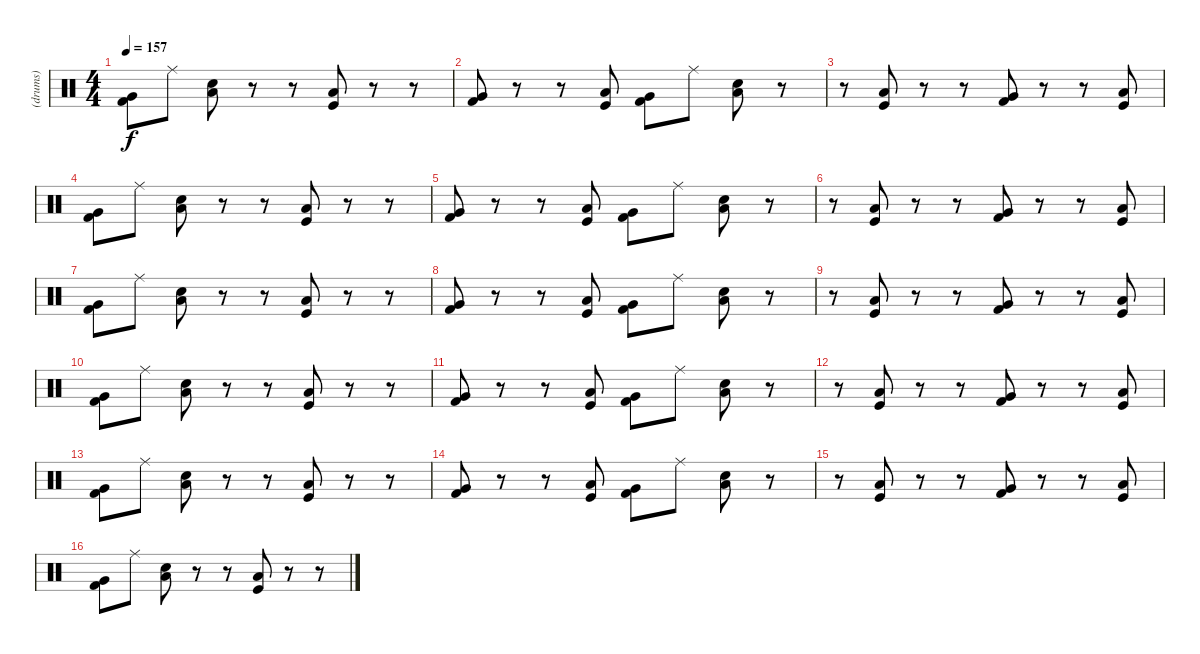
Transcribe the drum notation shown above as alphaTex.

\track ("(drums)" "(drums)") {instrument percussion}
\staff {score}
\articulation defaults
\ts (4 4)
\tempo 157
\clef neutral
\ks c
("Kick (hit) 2" "Very Low Tom (hit)").8{dy f} "Ride (middle)".8 ("Snare (hit) 2" "Low Floor Tom (hit)").8 r.8 r.8 ("Kick (hit)" "Low Tom (hit)").8 r.8 r.8 |
("Kick (hit) 2" "Very Low Tom (hit)").8 r.8 r.8 ("Kick (hit)" "Low Tom (hit)").8 ("Kick (hit) 2" "Very Low Tom (hit)").8 "Ride (middle)".8 ("Snare (hit) 2" "Low Floor Tom (hit)").8 r.8 |
r.8 ("Kick (hit)" "Low Tom (hit)").8 r.8 r.8 ("Kick (hit) 2" "Very Low Tom (hit)").8 r.8 r.8 ("Kick (hit)" "Low Tom (hit)").8 |
("Kick (hit) 2" "Very Low Tom (hit)").8 "Ride (middle)".8 ("Snare (hit) 2" "Low Floor Tom (hit)").8 r.8 r.8 ("Kick (hit)" "Low Tom (hit)").8 r.8 r.8 |
("Kick (hit) 2" "Very Low Tom (hit)").8 r.8 r.8 ("Kick (hit)" "Low Tom (hit)").8 ("Kick (hit) 2" "Very Low Tom (hit)").8 "Ride (middle)".8 ("Snare (hit) 2" "Low Floor Tom (hit)").8 r.8 |
r.8 ("Kick (hit)" "Low Tom (hit)").8 r.8 r.8 ("Kick (hit) 2" "Very Low Tom (hit)").8 r.8 r.8 ("Kick (hit)" "Low Tom (hit)").8 |
("Kick (hit) 2" "Very Low Tom (hit)").8 "Ride (middle)".8 ("Snare (hit) 2" "Low Floor Tom (hit)").8 r.8 r.8 ("Kick (hit)" "Low Tom (hit)").8 r.8 r.8 |
("Kick (hit) 2" "Very Low Tom (hit)").8 r.8 r.8 ("Kick (hit)" "Low Tom (hit)").8 ("Kick (hit) 2" "Very Low Tom (hit)").8 "Ride (middle)".8 ("Snare (hit) 2" "Low Floor Tom (hit)").8 r.8 |
r.8 ("Kick (hit)" "Low Tom (hit)").8 r.8 r.8 ("Kick (hit) 2" "Very Low Tom (hit)").8 r.8 r.8 ("Kick (hit)" "Low Tom (hit)").8 |
("Kick (hit) 2" "Very Low Tom (hit)").8 "Ride (middle)".8 ("Snare (hit) 2" "Low Floor Tom (hit)").8 r.8 r.8 ("Kick (hit)" "Low Tom (hit)").8 r.8 r.8 |
("Kick (hit) 2" "Very Low Tom (hit)").8 r.8 r.8 ("Kick (hit)" "Low Tom (hit)").8 ("Kick (hit) 2" "Very Low Tom (hit)").8 "Ride (middle)".8 ("Snare (hit) 2" "Low Floor Tom (hit)").8 r.8 |
r.8 ("Kick (hit)" "Low Tom (hit)").8 r.8 r.8 ("Kick (hit) 2" "Very Low Tom (hit)").8 r.8 r.8 ("Kick (hit)" "Low Tom (hit)").8 |
("Kick (hit) 2" "Very Low Tom (hit)").8 "Ride (middle)".8 ("Snare (hit) 2" "Low Floor Tom (hit)").8 r.8 r.8 ("Kick (hit)" "Low Tom (hit)").8 r.8 r.8 |
("Kick (hit) 2" "Very Low Tom (hit)").8 r.8 r.8 ("Kick (hit)" "Low Tom (hit)").8 ("Kick (hit) 2" "Very Low Tom (hit)").8 "Ride (middle)".8 ("Snare (hit) 2" "Low Floor Tom (hit)").8 r.8 |
r.8 ("Kick (hit)" "Low Tom (hit)").8 r.8 r.8 ("Kick (hit) 2" "Very Low Tom (hit)").8 r.8 r.8 ("Kick (hit)" "Low Tom (hit)").8 |
("Kick (hit) 2" "Very Low Tom (hit)").8 "Ride (middle)".8 ("Snare (hit) 2" "Low Floor Tom (hit)").8 r.8 r.8 ("Kick (hit)" "Low Tom (hit)").8 r.8 r.8
